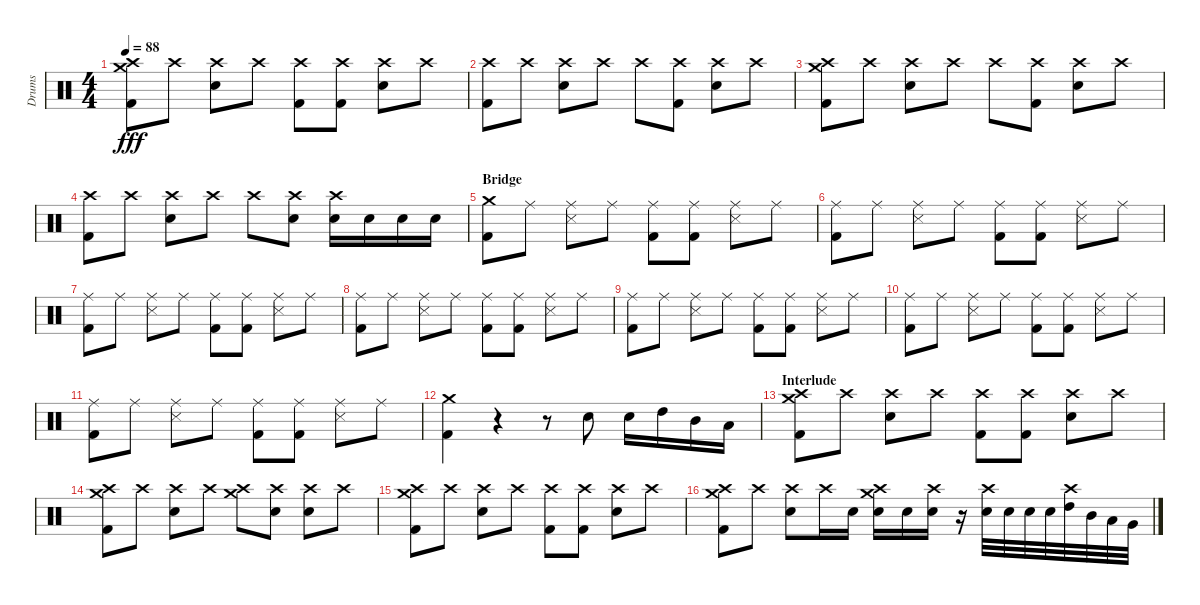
\track ("Drums" "Drums") {instrument percussion}
\staff {score}
\articulation defaults
\ts (4 4)
\tempo 88
\clef neutral
\ks c
("Crash high (hit)" "Crash medium (hit)" "Kick (hit) 2").8{dy fff} "Crash high (hit)".8 ("Crash high (hit)" "Electric Snare (hit)").8 "Crash high (hit)".8 ("Crash high (hit)" "Kick (hit) 2").8 ("Crash high (hit)" "Kick (hit) 2").8 ("Crash high (hit)" "Electric Snare (hit)").8 "Crash high (hit)".8 |
("Crash high (hit)" "Kick (hit) 2").8 "Crash high (hit)".8 ("Crash high (hit)" "Electric Snare (hit)").8 "Crash high (hit)".8 "Crash high (hit)".8 ("Crash high (hit)" "Kick (hit) 2").8 ("Crash high (hit)" "Electric Snare (hit)").8 "Crash high (hit)".8 |
("Crash high (hit)" "Crash medium (hit)" "Kick (hit) 2").8 "Crash high (hit)".8 ("Crash high (hit)" "Electric Snare (hit)").8 "Crash high (hit)".8 "Crash high (hit)".8 ("Crash high (hit)" "Kick (hit) 2").8 ("Crash high (hit)" "Electric Snare (hit)").8 "Crash high (hit)".8 |
("Crash high (hit)" "Kick (hit) 2").8 "Crash high (hit)".8 ("Crash high (hit)" "Electric Snare (hit)").8 "Crash high (hit)".8 "Crash high (hit)".8 ("Crash high (hit)" "Electric Snare (hit)").8 ("Crash high (hit)" "Electric Snare (hit)").16 "Electric Snare (hit)".16 "Electric Snare (hit)".16 "Electric Snare (hit)".16 |
\section ("" "Bridge")
("Crash medium (hit)" "Kick (hit) 2").8 "Ride (middle)".8 ("Ride (middle)" "Snare (side stick) 3").8 "Ride (middle)".8 ("Ride (middle)" "Kick (hit) 2").8 ("Ride (middle)" "Kick (hit) 2").8 ("Ride (middle)" "Snare (side stick) 3").8 "Ride (middle)".8 |
("Ride (middle)" "Kick (hit) 2").8 "Ride (middle)".8 ("Ride (middle)" "Snare (side stick) 3").8 "Ride (middle)".8 ("Ride (middle)" "Kick (hit) 2").8 ("Ride (middle)" "Kick (hit) 2").8 ("Ride (middle)" "Snare (side stick) 3").8 "Ride (middle)".8 |
("Ride (middle)" "Kick (hit) 2").8 "Ride (middle)".8 ("Ride (middle)" "Snare (side stick) 3").8 "Ride (middle)".8 ("Ride (middle)" "Kick (hit) 2").8 ("Ride (middle)" "Kick (hit) 2").8 ("Ride (middle)" "Snare (side stick) 3").8 "Ride (middle)".8 |
("Ride (middle)" "Kick (hit) 2").8 "Ride (middle)".8 ("Ride (middle)" "Snare (side stick) 3").8 "Ride (middle)".8 ("Ride (middle)" "Kick (hit) 2").8 ("Ride (middle)" "Kick (hit) 2").8 ("Ride (middle)" "Snare (side stick) 3").8 "Ride (middle)".8 |
("Ride (middle)" "Kick (hit) 2").8 "Ride (middle)".8 ("Ride (middle)" "Snare (side stick) 3").8 "Ride (middle)".8 ("Ride (middle)" "Kick (hit) 2").8 ("Ride (middle)" "Kick (hit) 2").8 ("Ride (middle)" "Snare (side stick) 3").8 "Ride (middle)".8 |
("Ride (middle)" "Kick (hit) 2").8 "Ride (middle)".8 ("Ride (middle)" "Snare (side stick) 3").8 "Ride (middle)".8 ("Ride (middle)" "Kick (hit) 2").8 ("Ride (middle)" "Kick (hit) 2").8 ("Ride (middle)" "Snare (side stick) 3").8 "Ride (middle)".8 |
("Ride (middle)" "Kick (hit) 2").8 "Ride (middle)".8 ("Ride (middle)" "Snare (side stick) 3").8 "Ride (middle)".8 ("Ride (middle)" "Kick (hit) 2").8 ("Ride (middle)" "Kick (hit) 2").8 ("Ride (middle)" "Snare (side stick) 3").8 "Ride (middle)".8 |
("Crash medium (hit)" "Kick (hit) 2").4 r.4 r.8 "Electric Snare (hit)".8 "Electric Snare (hit)".16 "High Tom (hit)".16 "Mid Tom (hit)".16 "Low Tom (hit)".16 |
\section ("" "Interlude")
("Crash high (hit)" "Crash medium (hit)" "Kick (hit) 2").8 "Crash high (hit)".8 ("Crash high (hit)" "Electric Snare (hit)").8 "Crash high (hit)".8 ("Crash high (hit)" "Kick (hit) 2").8 ("Crash high (hit)" "Kick (hit) 2").8 ("Crash high (hit)" "Electric Snare (hit)").8 "Crash high (hit)".8 |
("Crash high (hit)" "Crash medium (hit)" "Kick (hit) 2").8 "Crash high (hit)".8 ("Crash high (hit)" "Electric Snare (hit)").8 "Crash high (hit)".8 ("Crash high (hit)" "Crash medium (hit)").8 ("Crash high (hit)" "Electric Snare (hit)").8 ("Crash high (hit)" "Electric Snare (hit)").8 "Crash high (hit)".8 |
("Crash high (hit)" "Crash medium (hit)" "Kick (hit) 2").8 "Crash high (hit)".8 ("Crash high (hit)" "Electric Snare (hit)").8 "Crash high (hit)".8 ("Crash high (hit)" "Kick (hit) 2").8 ("Crash high (hit)" "Kick (hit) 2").8 ("Crash high (hit)" "Electric Snare (hit)").8 "Crash high (hit)".8 |
("Crash high (hit)" "Crash medium (hit)" "Kick (hit) 2").8 "Crash high (hit)".8 ("Crash high (hit)" "Electric Snare (hit)").8 "Crash high (hit)".16 "Electric Snare (hit)".16 ("Crash high (hit)" "Crash medium (hit)" "Electric Snare (hit)").16 "Electric Snare (hit)".16 ("Crash high (hit)" "Electric Snare (hit)").16 r.16 ("Crash high (hit)" "Electric Snare (hit)").32 "Electric Snare (hit)".32 "Electric Snare (hit)".32 "Electric Snare (hit)".32 ("Crash high (hit)" "High Tom (hit)").32 "Mid Tom (hit)".32 "Low Tom (hit)".32 "Very Low Tom (hit)".32
